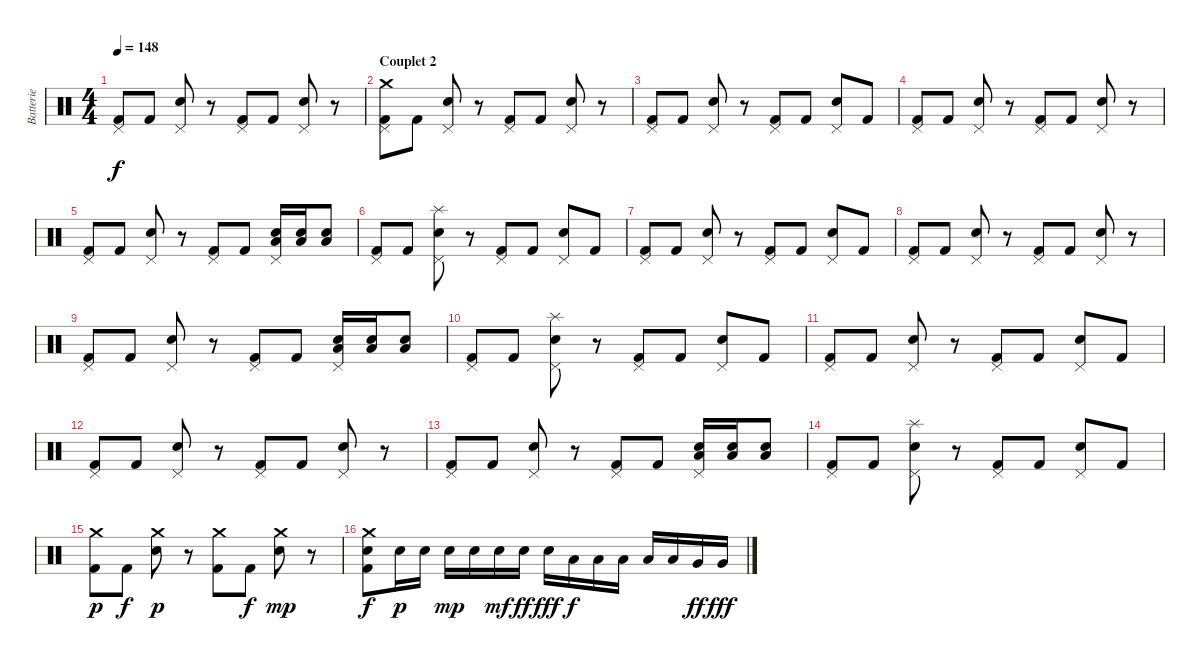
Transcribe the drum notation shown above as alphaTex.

\track ("Batterie" "Batterie") {instrument percussion}
\staff {score}
\articulation defaults
\ts (4 4)
\tempo 148
\clef neutral
\ks c
("Pedal Hi-Hat (hit)" "Kick (hit) 2").8{dy f} "Kick (hit) 2".8 ("Pedal Hi-Hat (hit)" "Electric Snare (hit)").8 r.8 ("Pedal Hi-Hat (hit)" "Kick (hit) 2").8 "Kick (hit) 2".8 ("Pedal Hi-Hat (hit)" "Electric Snare (hit)").8 r.8 |
\section ("" "Couplet 2")
("Crash medium (hit)" "Pedal Hi-Hat (hit)" "Kick (hit) 2").8{volume 16} "Kick (hit) 2".8 ("Pedal Hi-Hat (hit)" "Electric Snare (hit)").8 r.8 ("Pedal Hi-Hat (hit)" "Kick (hit) 2").8 "Kick (hit) 2".8 ("Pedal Hi-Hat (hit)" "Electric Snare (hit)").8 r.8 |
("Pedal Hi-Hat (hit)" "Kick (hit) 2").8 "Kick (hit) 2".8 ("Pedal Hi-Hat (hit)" "Electric Snare (hit)").8 r.8 ("Pedal Hi-Hat (hit)" "Kick (hit) 2").8 "Kick (hit) 2".8 ("Pedal Hi-Hat (hit)" "Electric Snare (hit)").8 "Kick (hit) 2".8 |
("Pedal Hi-Hat (hit)" "Kick (hit) 2").8 "Kick (hit) 2".8 ("Pedal Hi-Hat (hit)" "Electric Snare (hit)").8 r.8 ("Pedal Hi-Hat (hit)" "Kick (hit) 2").8 "Kick (hit) 2".8 ("Pedal Hi-Hat (hit)" "Electric Snare (hit)").8 r.8 |
("Pedal Hi-Hat (hit)" "Kick (hit) 2").8 "Kick (hit) 2".8 ("Pedal Hi-Hat (hit)" "Electric Snare (hit)").8 r.8 ("Pedal Hi-Hat (hit)" "Kick (hit) 2").8 "Kick (hit) 2".8 ("Pedal Hi-Hat (hit)" "Electric Snare (hit)" "Low Tom (hit)").16 ("Electric Snare (hit)" "Low Tom (hit)").16 ("Electric Snare (hit)" "Low Tom (hit)").8 |
("Pedal Hi-Hat (hit)" "Kick (hit) 2").8 "Kick (hit) 2".8 ("Splash (hit)" "Pedal Hi-Hat (hit)" "Electric Snare (hit)").8 r.8 ("Pedal Hi-Hat (hit)" "Kick (hit) 2").8 "Kick (hit) 2".8 ("Pedal Hi-Hat (hit)" "Electric Snare (hit)").8 "Kick (hit) 2".8 |
("Pedal Hi-Hat (hit)" "Kick (hit) 2").8 "Kick (hit) 2".8 ("Pedal Hi-Hat (hit)" "Electric Snare (hit)").8 r.8 ("Pedal Hi-Hat (hit)" "Kick (hit) 2").8 "Kick (hit) 2".8 ("Pedal Hi-Hat (hit)" "Electric Snare (hit)").8 "Kick (hit) 2".8 |
("Pedal Hi-Hat (hit)" "Kick (hit) 2").8 "Kick (hit) 2".8 ("Pedal Hi-Hat (hit)" "Electric Snare (hit)").8 r.8 ("Pedal Hi-Hat (hit)" "Kick (hit) 2").8 "Kick (hit) 2".8 ("Pedal Hi-Hat (hit)" "Electric Snare (hit)").8 r.8 |
("Pedal Hi-Hat (hit)" "Kick (hit) 2").8 "Kick (hit) 2".8 ("Pedal Hi-Hat (hit)" "Electric Snare (hit)").8 r.8 ("Pedal Hi-Hat (hit)" "Kick (hit) 2").8 "Kick (hit) 2".8 ("Pedal Hi-Hat (hit)" "Electric Snare (hit)" "Low Tom (hit)").16 ("Electric Snare (hit)" "Low Tom (hit)").16 ("Electric Snare (hit)" "Low Tom (hit)").8 |
("Pedal Hi-Hat (hit)" "Kick (hit) 2").8 "Kick (hit) 2".8 ("Splash (hit)" "Pedal Hi-Hat (hit)" "Electric Snare (hit)").8 r.8 ("Pedal Hi-Hat (hit)" "Kick (hit) 2").8 "Kick (hit) 2".8 ("Pedal Hi-Hat (hit)" "Electric Snare (hit)").8 "Kick (hit) 2".8 |
("Pedal Hi-Hat (hit)" "Kick (hit) 2").8 "Kick (hit) 2".8 ("Pedal Hi-Hat (hit)" "Electric Snare (hit)").8 r.8 ("Pedal Hi-Hat (hit)" "Kick (hit) 2").8 "Kick (hit) 2".8 ("Pedal Hi-Hat (hit)" "Electric Snare (hit)").8 "Kick (hit) 2".8 |
("Pedal Hi-Hat (hit)" "Kick (hit) 2").8 "Kick (hit) 2".8 ("Pedal Hi-Hat (hit)" "Electric Snare (hit)").8 r.8 ("Pedal Hi-Hat (hit)" "Kick (hit) 2").8 "Kick (hit) 2".8 ("Pedal Hi-Hat (hit)" "Electric Snare (hit)").8 r.8 |
("Pedal Hi-Hat (hit)" "Kick (hit) 2").8 "Kick (hit) 2".8 ("Pedal Hi-Hat (hit)" "Electric Snare (hit)").8 r.8 ("Pedal Hi-Hat (hit)" "Kick (hit) 2").8 "Kick (hit) 2".8 ("Pedal Hi-Hat (hit)" "Electric Snare (hit)" "Low Tom (hit)").16 ("Electric Snare (hit)" "Low Tom (hit)").16 ("Electric Snare (hit)" "Low Tom (hit)").8 |
("Pedal Hi-Hat (hit)" "Kick (hit) 2").8 "Kick (hit) 2".8 ("Splash (hit)" "Pedal Hi-Hat (hit)" "Electric Snare (hit)").8 r.8 ("Pedal Hi-Hat (hit)" "Kick (hit) 2").8 "Kick (hit) 2".8 ("Pedal Hi-Hat (hit)" "Electric Snare (hit)").8 "Kick (hit) 2".8 |
("Crash medium (hit)" "Kick (hit) 2").8{dy p} "Kick (hit) 2".8{dy f} ("Crash medium (hit)" "Electric Snare (hit)").8{dy p} r.8 ("Crash medium (hit)" "Kick (hit) 2").8 "Kick (hit) 2".8{dy f} ("Crash medium (hit)" "Electric Snare (hit)").8{dy mp} r.8 |
("Crash medium (hit)" "Electric Snare (hit)" "Kick (hit) 2").8{dy f} "Electric Snare (hit)".16{dy p} "Electric Snare (hit)".16 "Electric Snare (hit)".16{dy mp} "Electric Snare (hit)".16 "Electric Snare (hit)".16{dy mf} "Electric Snare (hit)".16{dy ff} "Electric Snare (hit)".16{dy fff} "Low Tom (hit)".16{dy f} "Low Tom (hit)".16 "Low Tom (hit)".16 "Low Tom (hit)".16 "Low Tom (hit)".16 "Very Low Tom (hit)".16{dy ff} "Very Low Tom (hit)".16{dy fff}
